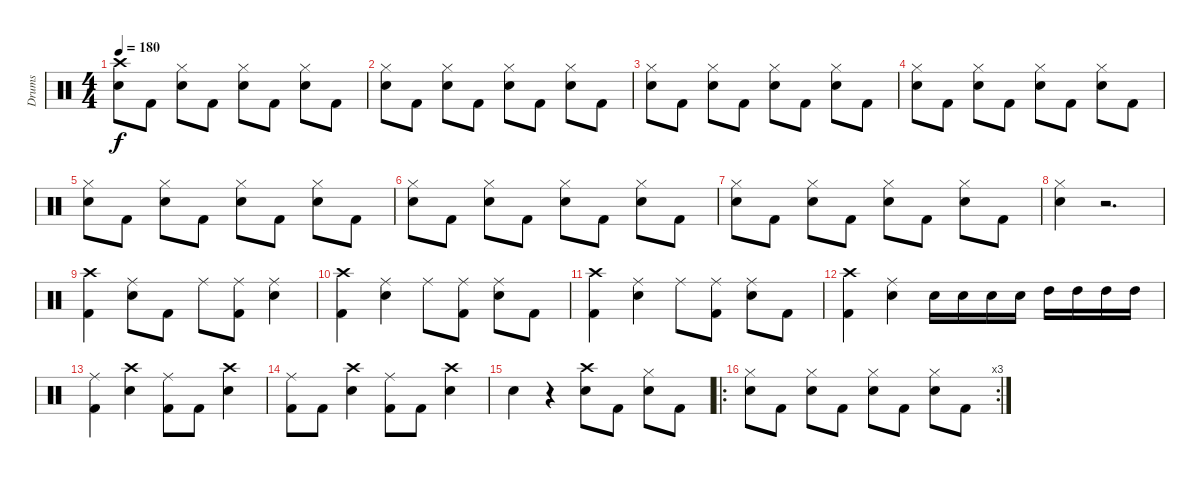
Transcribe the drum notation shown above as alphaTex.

\track ("Drums" "Drums") {instrument percussion}
\staff {score}
\articulation defaults
\ts (4 4)
\tempo 180
\clef neutral
\ks c
("Crash high (hit)" "Electric Snare (hit)").8{dy f} "Kick (hit) 2".8 ("Hi-Hat (closed)" "Electric Snare (hit)").8 "Kick (hit) 2".8 ("Hi-Hat (closed)" "Electric Snare (hit)").8 "Kick (hit) 2".8 ("Hi-Hat (closed)" "Electric Snare (hit)").8 "Kick (hit) 2".8 |
("Hi-Hat (closed)" "Electric Snare (hit)").8 "Kick (hit) 2".8 ("Hi-Hat (closed)" "Electric Snare (hit)").8 "Kick (hit) 2".8 ("Hi-Hat (closed)" "Electric Snare (hit)").8 "Kick (hit) 2".8 ("Hi-Hat (closed)" "Electric Snare (hit)").8 "Kick (hit) 2".8 |
("Hi-Hat (closed)" "Electric Snare (hit)").8 "Kick (hit) 2".8 ("Hi-Hat (closed)" "Electric Snare (hit)").8 "Kick (hit) 2".8 ("Hi-Hat (closed)" "Electric Snare (hit)").8 "Kick (hit) 2".8 ("Hi-Hat (closed)" "Electric Snare (hit)").8 "Kick (hit) 2".8 |
("Hi-Hat (closed)" "Electric Snare (hit)").8 "Kick (hit) 2".8 ("Hi-Hat (closed)" "Electric Snare (hit)").8 "Kick (hit) 2".8 ("Hi-Hat (closed)" "Electric Snare (hit)").8 "Kick (hit) 2".8 ("Hi-Hat (closed)" "Electric Snare (hit)").8 "Kick (hit) 2".8 |
("Hi-Hat (closed)" "Electric Snare (hit)").8 "Kick (hit) 2".8 ("Hi-Hat (closed)" "Electric Snare (hit)").8 "Kick (hit) 2".8 ("Hi-Hat (closed)" "Electric Snare (hit)").8 "Kick (hit) 2".8 ("Hi-Hat (closed)" "Electric Snare (hit)").8 "Kick (hit) 2".8 |
("Hi-Hat (closed)" "Electric Snare (hit)").8 "Kick (hit) 2".8 ("Hi-Hat (closed)" "Electric Snare (hit)").8 "Kick (hit) 2".8 ("Hi-Hat (closed)" "Electric Snare (hit)").8 "Kick (hit) 2".8 ("Hi-Hat (closed)" "Electric Snare (hit)").8 "Kick (hit) 2".8 |
("Hi-Hat (closed)" "Electric Snare (hit)").8 "Kick (hit) 2".8 ("Hi-Hat (closed)" "Electric Snare (hit)").8 "Kick (hit) 2".8 ("Hi-Hat (closed)" "Electric Snare (hit)").8 "Kick (hit) 2".8 ("Hi-Hat (closed)" "Electric Snare (hit)").8 "Kick (hit) 2".8 |
("Hi-Hat (closed)" "Electric Snare (hit)").4 r.2{d} |
("Crash high (hit)" "Kick (hit) 2").4 ("Ride (middle)" "Electric Snare (hit)").8 "Kick (hit) 2".8 "Ride (middle)".8 ("Ride (middle)" "Kick (hit) 2").8 ("Ride (middle)" "Electric Snare (hit)").4 |
("Crash high (hit)" "Kick (hit) 2").4 ("Ride (middle)" "Electric Snare (hit)").4 "Ride (middle)".8 ("Ride (middle)" "Kick (hit) 2").8 ("Ride (middle)" "Electric Snare (hit)").8 "Kick (hit) 2".8 |
("Crash high (hit)" "Kick (hit) 2").4 ("Ride (middle)" "Electric Snare (hit)").4 "Ride (middle)".8 ("Ride (middle)" "Kick (hit) 2").8 ("Ride (middle)" "Electric Snare (hit)").8 "Kick (hit) 2".8 |
("Crash high (hit)" "Kick (hit) 2").4 ("Ride (middle)" "Electric Snare (hit)").4 "Electric Snare (hit)".16 "Electric Snare (hit)".16 "Electric Snare (hit)".16 "Electric Snare (hit)".16 "High Tom (hit)".16 "High Tom (hit)".16 "High Tom (hit)".16 "High Tom (hit)".16 |
("Ride (middle)" "Kick (hit) 2").4 ("Crash high (hit)" "Electric Snare (hit)").4 ("Ride (middle)" "Kick (hit) 2").8 "Kick (hit) 2".8 ("Crash high (hit)" "Electric Snare (hit)").4 |
("Ride (middle)" "Kick (hit) 2").8 "Kick (hit) 2".8 ("Crash high (hit)" "Electric Snare (hit)").4 ("Ride (middle)" "Kick (hit) 2").8 "Kick (hit) 2".8 ("Crash high (hit)" "Electric Snare (hit)").4 |
"Electric Snare (hit)".4 r.4 ("Crash high (hit)" "Electric Snare (hit)").8 "Kick (hit) 2".8 ("Hi-Hat (closed)" "Electric Snare (hit)").8 "Kick (hit) 2".8 |
\ro
\rc 3
("Hi-Hat (closed)" "Electric Snare (hit)").8 "Kick (hit) 2".8 ("Hi-Hat (closed)" "Electric Snare (hit)").8 "Kick (hit) 2".8 ("Hi-Hat (closed)" "Electric Snare (hit)").8 "Kick (hit) 2".8 ("Hi-Hat (closed)" "Electric Snare (hit)").8 "Kick (hit) 2".8
